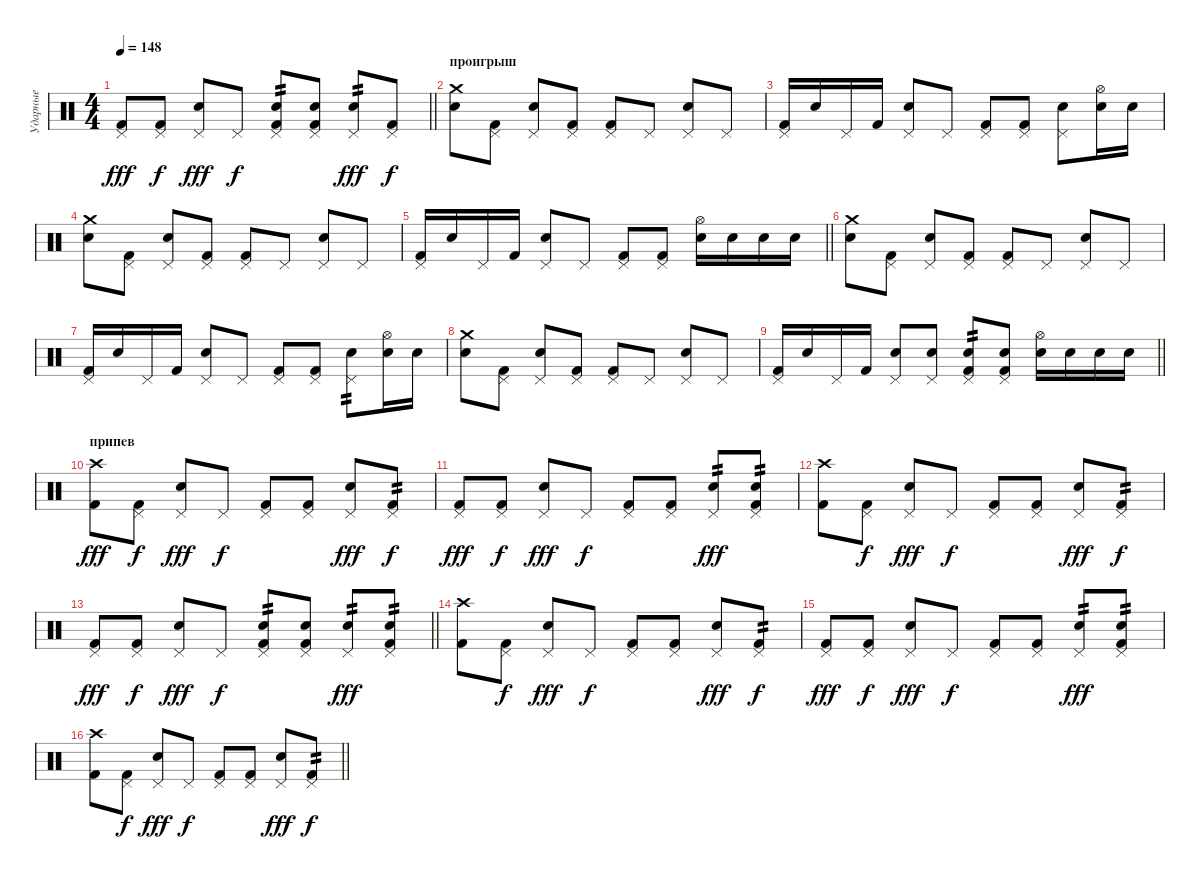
\track ("Ударные" "Ударные") {instrument percussion}
\staff
\articulation defaults
\ts (4 4)
\tempo 148
\clef neutral
\barLineRight lightlight
\ks c
("Pedal Hi-Hat (hit)" "Kick (hit) 2").8{dy fff} ("Pedal Hi-Hat (hit)" "Kick (hit) 2").8{dy f} ("Pedal Hi-Hat (hit)" "Electric Snare (hit)").8{dy fff} "Pedal Hi-Hat (hit)".8{dy f} ("Pedal Hi-Hat (hit)" "Electric Snare (hit)" "Kick (hit) 2").8{tp 2} ("Pedal Hi-Hat (hit)" "Electric Snare (hit)" "Kick (hit) 2").8 ("Pedal Hi-Hat (hit)" "Electric Snare (hit)").8{tp 2 dy fff} ("Pedal Hi-Hat (hit)" "Kick (hit) 2").8{dy f} |
\section ("" "проигрыш")
("Crash medium (hit)" "Electric Snare (hit)").8 ("Pedal Hi-Hat (hit)" "Kick (hit) 2").8 ("Pedal Hi-Hat (hit)" "Electric Snare (hit)").8 ("Pedal Hi-Hat (hit)" "Kick (hit) 2").8 ("Pedal Hi-Hat (hit)" "Kick (hit) 2").8 "Pedal Hi-Hat (hit)".8 ("Pedal Hi-Hat (hit)" "Electric Snare (hit)").8 "Pedal Hi-Hat (hit)".8 |
("Pedal Hi-Hat (hit)" "Kick (hit) 2").16 "Electric Snare (hit)".16 "Pedal Hi-Hat (hit)".16 "Kick (hit) 2".16 ("Pedal Hi-Hat (hit)" "Electric Snare (hit)").8 "Pedal Hi-Hat (hit)".8 ("Pedal Hi-Hat (hit)" "Kick (hit) 2").8 ("Pedal Hi-Hat (hit)" "Kick (hit) 2").8 ("Pedal Hi-Hat (hit)" "Electric Snare (hit)").8 ("Hi-Hat (open)" "Electric Snare (hit)").16 "Electric Snare (hit)".16 |
("Crash medium (hit)" "Electric Snare (hit)").8 ("Pedal Hi-Hat (hit)" "Kick (hit) 2").8 ("Pedal Hi-Hat (hit)" "Electric Snare (hit)").8 ("Pedal Hi-Hat (hit)" "Kick (hit) 2").8 ("Pedal Hi-Hat (hit)" "Kick (hit) 2").8 "Pedal Hi-Hat (hit)".8 ("Pedal Hi-Hat (hit)" "Electric Snare (hit)").8 "Pedal Hi-Hat (hit)".8 |
\barLineRight lightlight
("Pedal Hi-Hat (hit)" "Kick (hit) 2").16 "Electric Snare (hit)".16 "Pedal Hi-Hat (hit)".16 "Kick (hit) 2".16 ("Pedal Hi-Hat (hit)" "Electric Snare (hit)").8 "Pedal Hi-Hat (hit)".8 ("Pedal Hi-Hat (hit)" "Kick (hit) 2").8 ("Pedal Hi-Hat (hit)" "Kick (hit) 2").8 ("Hi-Hat (open)" "Electric Snare (hit)").16 "Electric Snare (hit)".16 "Electric Snare (hit)".16 "Electric Snare (hit)".16 |
("Crash medium (hit)" "Electric Snare (hit)").8 ("Pedal Hi-Hat (hit)" "Kick (hit) 2").8 ("Pedal Hi-Hat (hit)" "Electric Snare (hit)").8 ("Pedal Hi-Hat (hit)" "Kick (hit) 2").8 ("Pedal Hi-Hat (hit)" "Kick (hit) 2").8 "Pedal Hi-Hat (hit)".8 ("Pedal Hi-Hat (hit)" "Electric Snare (hit)").8 "Pedal Hi-Hat (hit)".8 |
("Pedal Hi-Hat (hit)" "Kick (hit) 2").16 "Electric Snare (hit)".16 "Pedal Hi-Hat (hit)".16 "Kick (hit) 2".16 ("Pedal Hi-Hat (hit)" "Electric Snare (hit)").8 "Pedal Hi-Hat (hit)".8 ("Pedal Hi-Hat (hit)" "Kick (hit) 2").8 ("Pedal Hi-Hat (hit)" "Kick (hit) 2").8 ("Pedal Hi-Hat (hit)" "Electric Snare (hit)").8{tp 2} ("Hi-Hat (open)" "Electric Snare (hit)").16 "Electric Snare (hit)".16 |
("Crash medium (hit)" "Electric Snare (hit)").8 ("Pedal Hi-Hat (hit)" "Kick (hit) 2").8 ("Pedal Hi-Hat (hit)" "Electric Snare (hit)").8 ("Pedal Hi-Hat (hit)" "Kick (hit) 2").8 ("Pedal Hi-Hat (hit)" "Kick (hit) 2").8 "Pedal Hi-Hat (hit)".8 ("Pedal Hi-Hat (hit)" "Electric Snare (hit)").8 "Pedal Hi-Hat (hit)".8 |
\barLineRight lightlight
("Pedal Hi-Hat (hit)" "Kick (hit) 2").16 "Electric Snare (hit)".16 "Pedal Hi-Hat (hit)".16 "Kick (hit) 2".16 ("Pedal Hi-Hat (hit)" "Electric Snare (hit)").8 ("Pedal Hi-Hat (hit)" "Electric Snare (hit)").8 ("Pedal Hi-Hat (hit)" "Electric Snare (hit)" "Kick (hit) 2").8{tp 2} ("Pedal Hi-Hat (hit)" "Electric Snare (hit)" "Kick (hit) 2").8 ("Hi-Hat (open)" "Electric Snare (hit)").16 "Electric Snare (hit)".16 "Electric Snare (hit)".16 "Electric Snare (hit)".16 |
\section ("" "припев")
("Crash high (hit)" "Kick (hit) 2").8{dy fff} ("Pedal Hi-Hat (hit)" "Kick (hit) 2").8{dy f} ("Pedal Hi-Hat (hit)" "Electric Snare (hit)").8{dy fff} "Pedal Hi-Hat (hit)".8{dy f} ("Pedal Hi-Hat (hit)" "Kick (hit) 2").8 ("Pedal Hi-Hat (hit)" "Kick (hit) 2").8 ("Pedal Hi-Hat (hit)" "Electric Snare (hit)").8{dy fff} ("Pedal Hi-Hat (hit)" "Kick (hit) 2").8{tp 2 dy f} |
("Pedal Hi-Hat (hit)" "Kick (hit) 2").8{dy fff} ("Pedal Hi-Hat (hit)" "Kick (hit) 2").8{dy f} ("Pedal Hi-Hat (hit)" "Electric Snare (hit)").8{dy fff} "Pedal Hi-Hat (hit)".8{dy f} ("Pedal Hi-Hat (hit)" "Kick (hit) 2").8 ("Pedal Hi-Hat (hit)" "Kick (hit) 2").8 ("Pedal Hi-Hat (hit)" "Electric Snare (hit)").8{tp 2 dy fff} ("Pedal Hi-Hat (hit)" "Electric Snare (hit)" "Kick (hit) 2").8{tp 2} |
("Crash high (hit)" "Kick (hit) 2").8 ("Pedal Hi-Hat (hit)" "Kick (hit) 2").8{dy f} ("Pedal Hi-Hat (hit)" "Electric Snare (hit)").8{dy fff} "Pedal Hi-Hat (hit)".8{dy f} ("Pedal Hi-Hat (hit)" "Kick (hit) 2").8 ("Pedal Hi-Hat (hit)" "Kick (hit) 2").8 ("Pedal Hi-Hat (hit)" "Electric Snare (hit)").8{dy fff} ("Pedal Hi-Hat (hit)" "Kick (hit) 2").8{tp 2 dy f} |
\barLineRight lightlight
("Pedal Hi-Hat (hit)" "Kick (hit) 2").8{dy fff} ("Pedal Hi-Hat (hit)" "Kick (hit) 2").8{dy f} ("Pedal Hi-Hat (hit)" "Electric Snare (hit)").8{dy fff} "Pedal Hi-Hat (hit)".8{dy f} ("Pedal Hi-Hat (hit)" "Electric Snare (hit)" "Kick (hit) 2").8{tp 2} ("Pedal Hi-Hat (hit)" "Electric Snare (hit)" "Kick (hit) 2").8 ("Pedal Hi-Hat (hit)" "Electric Snare (hit)").8{tp 2 dy fff} ("Pedal Hi-Hat (hit)" "Electric Snare (hit)" "Kick (hit) 2").8{tp 2} |
("Crash high (hit)" "Kick (hit) 2").8 ("Pedal Hi-Hat (hit)" "Kick (hit) 2").8{dy f} ("Pedal Hi-Hat (hit)" "Electric Snare (hit)").8{dy fff} "Pedal Hi-Hat (hit)".8{dy f} ("Pedal Hi-Hat (hit)" "Kick (hit) 2").8 ("Pedal Hi-Hat (hit)" "Kick (hit) 2").8 ("Pedal Hi-Hat (hit)" "Electric Snare (hit)").8{dy fff} ("Pedal Hi-Hat (hit)" "Kick (hit) 2").8{tp 2 dy f} |
("Pedal Hi-Hat (hit)" "Kick (hit) 2").8{dy fff} ("Pedal Hi-Hat (hit)" "Kick (hit) 2").8{dy f} ("Pedal Hi-Hat (hit)" "Electric Snare (hit)").8{dy fff} "Pedal Hi-Hat (hit)".8{dy f} ("Pedal Hi-Hat (hit)" "Kick (hit) 2").8 ("Pedal Hi-Hat (hit)" "Kick (hit) 2").8 ("Pedal Hi-Hat (hit)" "Electric Snare (hit)").8{tp 2 dy fff} ("Pedal Hi-Hat (hit)" "Electric Snare (hit)" "Kick (hit) 2").8{tp 2} |
\barLineRight lightlight
("Crash high (hit)" "Kick (hit) 2").8 ("Pedal Hi-Hat (hit)" "Kick (hit) 2").8{dy f} ("Pedal Hi-Hat (hit)" "Electric Snare (hit)").8{dy fff} "Pedal Hi-Hat (hit)".8{dy f} ("Pedal Hi-Hat (hit)" "Kick (hit) 2").8 ("Pedal Hi-Hat (hit)" "Kick (hit) 2").8 ("Pedal Hi-Hat (hit)" "Electric Snare (hit)").8{dy fff} ("Pedal Hi-Hat (hit)" "Kick (hit) 2").8{tp 2 dy f}
